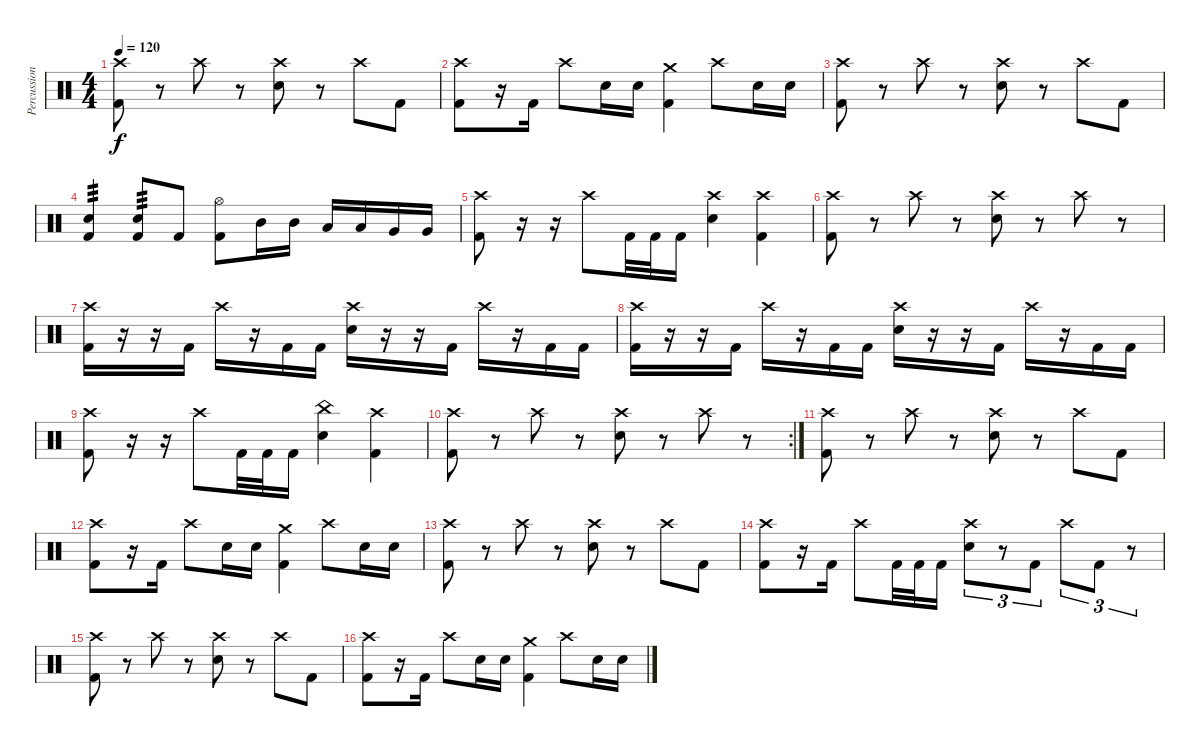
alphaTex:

\track ("Percussion" "Percussion") {instrument percussion}
\staff {score}
\articulation defaults
\ts (4 4)
\tempo 120
\clef neutral
\ks c
("Crash high (hit)" "Kick (hit) 2").8{dy f} r.8 "Crash high (hit)".8 r.8 ("Crash high (hit)" "Snare (hit) 2").8 r.8 "Crash high (hit)".8 "Kick (hit) 2".8 |
("Crash high (hit)" "Kick (hit) 2").8 r.16 "Kick (hit) 2".16 "Crash high (hit)".8 "Snare (hit) 2".16 "Snare (hit) 2".16 ("Crash medium (hit)" "Kick (hit) 2").4 "Crash high (hit)".8 "Snare (hit) 2".16 "Snare (hit) 2".16 |
("Crash high (hit)" "Kick (hit) 2").8 r.8 "Crash high (hit)".8 r.8 ("Crash high (hit)" "Snare (hit) 2").8 r.8 "Crash high (hit)".8 "Kick (hit) 2".8 |
("Snare (hit) 2" "Kick (hit) 2").4{tp 3} ("Snare (hit) 2" "Kick (hit) 2").8{tp 3} "Kick (hit) 2".8 ("Hi-Hat (open)" "Kick (hit) 2").8 "Mid Tom (hit)".16 "Mid Tom (hit)".16 "Low Tom (hit)".16 "Low Tom (hit)".16 "Very Low Tom (hit)".16 "Very Low Tom (hit)".16 |
("Crash high (hit)" "Kick (hit) 2").8 r.16 r.16 "Crash high (hit)".8 "Kick (hit) 2".32 "Kick (hit) 2".32 "Kick (hit) 2".16 ("Crash high (hit)" "Snare (hit) 2").4 ("Crash high (hit)" "Kick (hit) 2").4 |
("Crash high (hit)" "Kick (hit) 2").8 r.8 "Crash high (hit)".8 r.8 ("Crash high (hit)" "Snare (hit) 2").8 r.8 "Crash high (hit)".8 r.8 |
("Crash high (hit)" "Kick (hit) 2").16 r.16 r.16 "Kick (hit) 2".16 "Crash high (hit)".16 r.16 "Kick (hit) 2".16 "Kick (hit) 2".16 ("Crash high (hit)" "Snare (hit) 2").16 r.16 r.16 "Kick (hit) 2".16 "Crash high (hit)".16 r.16 "Kick (hit) 2".16 "Kick (hit) 2".16 |
("Crash high (hit)" "Kick (hit) 2").16 r.16 r.16 "Kick (hit) 2".16 "Crash high (hit)".16 r.16 "Kick (hit) 2".16 "Kick (hit) 2".16 ("Crash high (hit)" "Snare (hit) 2").16 r.16 r.16 "Kick (hit) 2".16 "Crash high (hit)".16 r.16 "Kick (hit) 2".16 "Kick (hit) 2".16 |
("Crash high (hit)" "Kick (hit) 2").8 r.16 r.16 "Crash high (hit)".8 "Kick (hit) 2".32 "Kick (hit) 2".32 "Kick (hit) 2".16 ("China (hit)" "Snare (hit) 2").4 ("Crash high (hit)" "Kick (hit) 2").4 |
\rc 2
("Crash high (hit)" "Kick (hit) 2").8 r.8 "Crash high (hit)".8 r.8 ("Crash high (hit)" "Snare (hit) 2").8 r.8 "Crash high (hit)".8 r.8 |
("Crash high (hit)" "Kick (hit) 2").8 r.8 "Crash high (hit)".8 r.8 ("Crash high (hit)" "Snare (hit) 2").8 r.8 "Crash high (hit)".8 "Kick (hit) 2".8 |
("Crash high (hit)" "Kick (hit) 2").8 r.16 "Kick (hit) 2".16 "Crash high (hit)".8 "Snare (hit) 2".16 "Snare (hit) 2".16 ("Crash medium (hit)" "Kick (hit) 2").4 "Crash high (hit)".8 "Snare (hit) 2".16 "Snare (hit) 2".16 |
("Crash high (hit)" "Kick (hit) 2").8 r.8 "Crash high (hit)".8 r.8 ("Crash high (hit)" "Snare (hit) 2").8 r.8 "Crash high (hit)".8 "Kick (hit) 2".8 |
("Crash high (hit)" "Kick (hit) 2").8 r.16 "Kick (hit) 2".16 "Crash high (hit)".8 "Kick (hit) 2".32 "Kick (hit) 2".32 "Kick (hit) 2".16 ("Crash high (hit)" "Snare (hit) 2").8{tu (3 2)} r.8{tu (3 2)} "Kick (hit) 2".8{tu (3 2)} "Crash high (hit)".8{tu (3 2)} "Kick (hit) 2".8{tu (3 2)} r.8{tu (3 2)} |
("Crash high (hit)" "Kick (hit) 2").8 r.8 "Crash high (hit)".8 r.8 ("Crash high (hit)" "Snare (hit) 2").8 r.8 "Crash high (hit)".8 "Kick (hit) 2".8 |
("Crash high (hit)" "Kick (hit) 2").8 r.16 "Kick (hit) 2".16 "Crash high (hit)".8 "Snare (hit) 2".16 "Snare (hit) 2".16 ("Crash medium (hit)" "Kick (hit) 2").4 "Crash high (hit)".8 "Snare (hit) 2".16 "Snare (hit) 2".16
